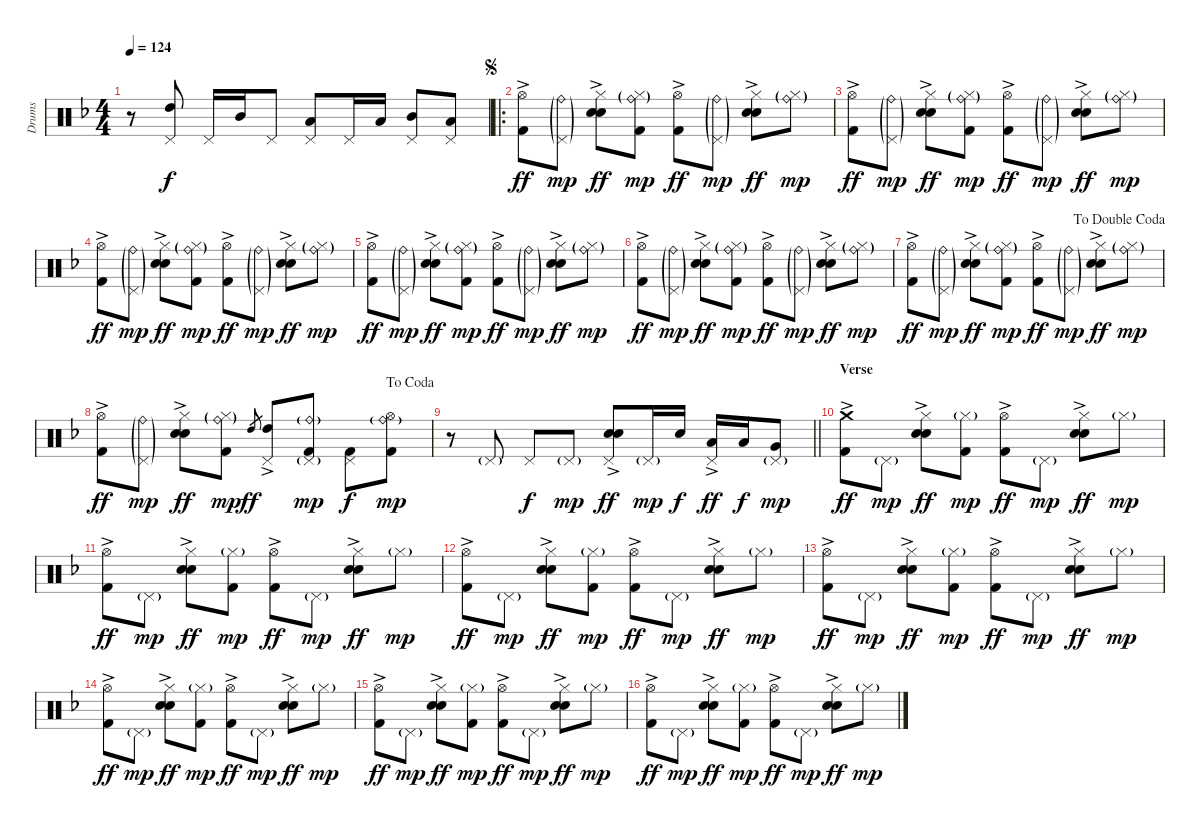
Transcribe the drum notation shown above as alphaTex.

\track ("Drums" "Drums") {instrument percussion}
\staff {score}
\articulation defaults
\ts (4 4)
\tempo 124
\clef neutral
\ks f
r.8{dy f} ("Pedal Hi-Hat (hit)" "High Tom (hit)").8 "Pedal Hi-Hat (hit)".16 "Mid Tom (hit)".16 "Pedal Hi-Hat (hit)".8 ("Pedal Hi-Hat (hit)" "Low Tom (hit)").8 "Pedal Hi-Hat (hit)".16 "Low Tom (hit)".16 ("Pedal Hi-Hat (hit)" "Mid Tom (hit)").8 ("Pedal Hi-Hat (hit)" "Low Tom (hit)").8 |
\ro
\jump segno
("Hi-Hat (open)" "Kick (hit) 2"{ac}).8{dy ff} ("Ride (bell)"{g} "Pedal Hi-Hat (hit)"{g}).8{dy mp} ("Hi-Hat (closed)" "Electric Snare (hit)"{ac} "Snare (hit) 2").8{dy ff} ("Hi-Hat (closed)"{g} "Ride (bell)"{g} "Kick (hit) 2").8{dy mp} ("Hi-Hat (open)" "Kick (hit) 2"{ac}).8{dy ff} ("Ride (bell)"{g} "Pedal Hi-Hat (hit)"{g}).8{dy mp} ("Hi-Hat (closed)" "Electric Snare (hit)"{ac} "Snare (hit) 2").8{dy ff} ("Hi-Hat (closed)"{g} "Ride (bell)"{g}).8{dy mp} |
("Hi-Hat (open)" "Kick (hit) 2"{ac}).8{dy ff} ("Ride (bell)"{g} "Pedal Hi-Hat (hit)"{g}).8{dy mp} ("Hi-Hat (closed)" "Electric Snare (hit)"{ac} "Snare (hit) 2").8{dy ff} ("Hi-Hat (closed)"{g} "Ride (bell)"{g} "Kick (hit) 2").8{dy mp} ("Hi-Hat (open)" "Kick (hit) 2"{ac}).8{dy ff} ("Ride (bell)"{g} "Pedal Hi-Hat (hit)"{g}).8{dy mp} ("Hi-Hat (closed)" "Electric Snare (hit)"{ac} "Snare (hit) 2").8{dy ff} ("Hi-Hat (closed)"{g} "Ride (bell)"{g}).8{dy mp} |
("Hi-Hat (open)" "Kick (hit) 2"{ac}).8{dy ff} ("Ride (bell)"{g} "Pedal Hi-Hat (hit)"{g}).8{dy mp} ("Hi-Hat (closed)" "Electric Snare (hit)"{ac} "Snare (hit) 2").8{dy ff} ("Hi-Hat (closed)"{g} "Ride (bell)"{g} "Kick (hit) 2").8{dy mp} ("Hi-Hat (open)" "Kick (hit) 2"{ac}).8{dy ff} ("Ride (bell)"{g} "Pedal Hi-Hat (hit)"{g}).8{dy mp} ("Hi-Hat (closed)" "Electric Snare (hit)"{ac} "Snare (hit) 2").8{dy ff} ("Hi-Hat (closed)"{g} "Ride (bell)"{g}).8{dy mp} |
("Hi-Hat (open)" "Kick (hit) 2"{ac}).8{dy ff} ("Ride (bell)"{g} "Pedal Hi-Hat (hit)"{g}).8{dy mp} ("Hi-Hat (closed)" "Electric Snare (hit)"{ac} "Snare (hit) 2").8{dy ff} ("Hi-Hat (closed)"{g} "Ride (bell)"{g} "Kick (hit) 2").8{dy mp} ("Hi-Hat (open)" "Kick (hit) 2"{ac}).8{dy ff} ("Ride (bell)"{g} "Pedal Hi-Hat (hit)"{g}).8{dy mp} ("Hi-Hat (closed)" "Electric Snare (hit)"{ac} "Snare (hit) 2").8{dy ff} ("Hi-Hat (closed)"{g} "Ride (bell)"{g}).8{dy mp} |
("Hi-Hat (open)" "Kick (hit) 2"{ac}).8{dy ff} ("Ride (bell)"{g} "Pedal Hi-Hat (hit)"{g}).8{dy mp} ("Hi-Hat (closed)" "Electric Snare (hit)"{ac} "Snare (hit) 2").8{dy ff} ("Hi-Hat (closed)"{g} "Ride (bell)"{g} "Kick (hit) 2").8{dy mp} ("Hi-Hat (open)" "Kick (hit) 2"{ac}).8{dy ff} ("Ride (bell)"{g} "Pedal Hi-Hat (hit)"{g}).8{dy mp} ("Hi-Hat (closed)" "Electric Snare (hit)"{ac} "Snare (hit) 2").8{dy ff} ("Hi-Hat (closed)"{g} "Ride (bell)"{g}).8{dy mp} |
\jump dadoublecoda
("Hi-Hat (open)" "Kick (hit) 2"{ac}).8{dy ff} ("Ride (bell)"{g} "Pedal Hi-Hat (hit)"{g}).8{dy mp} ("Hi-Hat (closed)" "Electric Snare (hit)"{ac} "Snare (hit) 2").8{dy ff} ("Hi-Hat (closed)"{g} "Ride (bell)"{g} "Kick (hit) 2").8{dy mp} ("Hi-Hat (open)" "Kick (hit) 2"{ac}).8{dy ff} ("Ride (bell)"{g} "Pedal Hi-Hat (hit)"{g}).8{dy mp} ("Hi-Hat (closed)" "Electric Snare (hit)"{ac} "Snare (hit) 2").8{dy ff} ("Hi-Hat (closed)"{g} "Ride (bell)"{g}).8{dy mp} |
\jump dacoda
("Hi-Hat (open)" "Kick (hit) 2"{ac}).8{dy ff} ("Ride (bell)"{g} "Pedal Hi-Hat (hit)"{g}).8{dy mp} ("Hi-Hat (closed)" "Electric Snare (hit)"{ac} "Snare (hit) 2").8{dy ff} ("Hi-Hat (closed)"{g} "Ride (bell)"{g} "Kick (hit) 2").8{dy mp} "High Tom (hit)".8{gr dy ff} ("Pedal Hi-Hat (hit)" "High Tom (hit)"{ac}).8 ("Pedal Hi-Hat (hit)"{g} "Ride (bell)"{g} "Kick (hit) 2").8{dy mp} ("Pedal Hi-Hat (hit)" "Kick (hit) 2").8{dy f} ("Hi-Hat (open)" "Ride (bell)"{g} "Kick (hit) 2").8{dy mp} |
\barLineRight lightlight
r.8 "Pedal Hi-Hat (hit)"{g}.8 "Pedal Hi-Hat (hit)".8{dy f} "Pedal Hi-Hat (hit)"{g}.8{dy mp} ("Pedal Hi-Hat (hit)" "Electric Snare (hit)"{ac} "Snare (hit) 2").8{dy ff} "Pedal Hi-Hat (hit)"{g}.16{dy mp} "Snare (hit) 2".16{dy f} ("Pedal Hi-Hat (hit)" "Low Tom (hit)"{ac}).16{dy ff} "Low Tom (hit)".16{dy f} ("Pedal Hi-Hat (hit)"{g} "Very Low Tom (hit)").8{dy mp} |
\section ("" "Verse")
("Crash medium (hit)" "Kick (hit) 2"{ac}).8{dy ff} "Pedal Hi-Hat (hit)"{g}.8{dy mp} ("Hi-Hat (closed)" "Electric Snare (hit)"{ac} "Snare (hit) 2").8{dy ff} ("Hi-Hat (closed)"{g} "Kick (hit) 2").8{dy mp} ("Hi-Hat (open)" "Kick (hit) 2"{ac}).8{dy ff} "Pedal Hi-Hat (hit)"{g}.8{dy mp} ("Hi-Hat (closed)" "Electric Snare (hit)"{ac} "Snare (hit) 2").8{dy ff} "Hi-Hat (closed)"{g}.8{dy mp} |
("Hi-Hat (open)" "Kick (hit) 2"{ac}).8{dy ff} "Pedal Hi-Hat (hit)"{g}.8{dy mp} ("Hi-Hat (closed)" "Electric Snare (hit)"{ac} "Snare (hit) 2").8{dy ff} ("Hi-Hat (closed)"{g} "Kick (hit) 2").8{dy mp} ("Hi-Hat (open)" "Kick (hit) 2"{ac}).8{dy ff} "Pedal Hi-Hat (hit)"{g}.8{dy mp} ("Hi-Hat (closed)" "Electric Snare (hit)"{ac} "Snare (hit) 2").8{dy ff} "Hi-Hat (closed)"{g}.8{dy mp} |
("Hi-Hat (open)" "Kick (hit) 2"{ac}).8{dy ff} "Pedal Hi-Hat (hit)"{g}.8{dy mp} ("Hi-Hat (closed)" "Electric Snare (hit)"{ac} "Snare (hit) 2").8{dy ff} ("Hi-Hat (closed)"{g} "Kick (hit) 2").8{dy mp} ("Hi-Hat (open)" "Kick (hit) 2"{ac}).8{dy ff} "Pedal Hi-Hat (hit)"{g}.8{dy mp} ("Hi-Hat (closed)" "Electric Snare (hit)"{ac} "Snare (hit) 2").8{dy ff} "Hi-Hat (closed)"{g}.8{dy mp} |
("Hi-Hat (open)" "Kick (hit) 2"{ac}).8{dy ff} "Pedal Hi-Hat (hit)"{g}.8{dy mp} ("Hi-Hat (closed)" "Electric Snare (hit)"{ac} "Snare (hit) 2").8{dy ff} ("Hi-Hat (closed)"{g} "Kick (hit) 2").8{dy mp} ("Hi-Hat (open)" "Kick (hit) 2"{ac}).8{dy ff} "Pedal Hi-Hat (hit)"{g}.8{dy mp} ("Hi-Hat (closed)" "Electric Snare (hit)"{ac} "Snare (hit) 2").8{dy ff} "Hi-Hat (closed)"{g}.8{dy mp} |
("Hi-Hat (open)" "Kick (hit) 2"{ac}).8{dy ff} "Pedal Hi-Hat (hit)"{g}.8{dy mp} ("Hi-Hat (closed)" "Electric Snare (hit)"{ac} "Snare (hit) 2").8{dy ff} ("Hi-Hat (closed)"{g} "Kick (hit) 2").8{dy mp} ("Hi-Hat (open)" "Kick (hit) 2"{ac}).8{dy ff} "Pedal Hi-Hat (hit)"{g}.8{dy mp} ("Hi-Hat (closed)" "Electric Snare (hit)"{ac} "Snare (hit) 2").8{dy ff} "Hi-Hat (closed)"{g}.8{dy mp} |
("Hi-Hat (open)" "Kick (hit) 2"{ac}).8{dy ff} "Pedal Hi-Hat (hit)"{g}.8{dy mp} ("Hi-Hat (closed)" "Electric Snare (hit)"{ac} "Snare (hit) 2").8{dy ff} ("Hi-Hat (closed)"{g} "Kick (hit) 2").8{dy mp} ("Hi-Hat (open)" "Kick (hit) 2"{ac}).8{dy ff} "Pedal Hi-Hat (hit)"{g}.8{dy mp} ("Hi-Hat (closed)" "Electric Snare (hit)"{ac} "Snare (hit) 2").8{dy ff} "Hi-Hat (closed)"{g}.8{dy mp} |
("Hi-Hat (open)" "Kick (hit) 2"{ac}).8{dy ff} "Pedal Hi-Hat (hit)"{g}.8{dy mp} ("Hi-Hat (closed)" "Electric Snare (hit)"{ac} "Snare (hit) 2").8{dy ff} ("Hi-Hat (closed)"{g} "Kick (hit) 2").8{dy mp} ("Hi-Hat (open)" "Kick (hit) 2"{ac}).8{dy ff} "Pedal Hi-Hat (hit)"{g}.8{dy mp} ("Hi-Hat (closed)" "Electric Snare (hit)"{ac} "Snare (hit) 2").8{dy ff} "Hi-Hat (closed)"{g}.8{dy mp}
